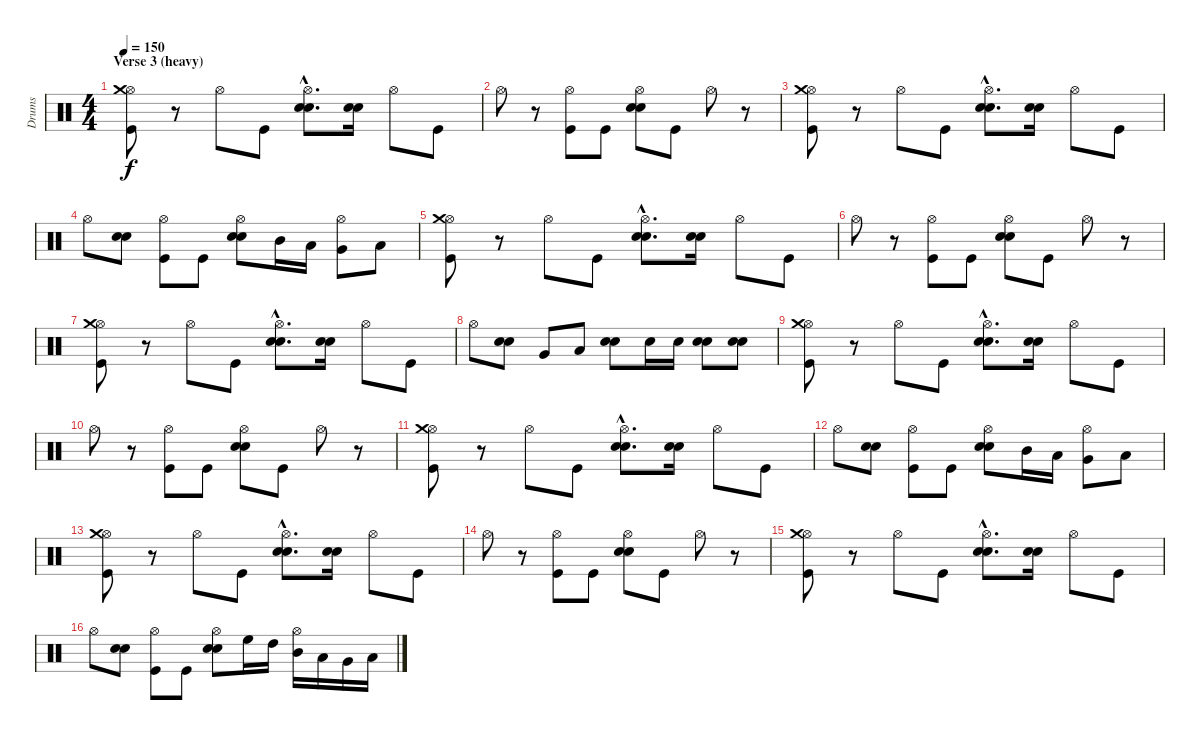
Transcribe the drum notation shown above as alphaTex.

\track ("Drums" "Drums") {instrument percussion}
\staff {score}
\articulation defaults
\ts (4 4)
\section ("" "Verse 3 (heavy)")
\tempo 150
\clef neutral
\ks c
("Kick (hit)" "Hi-Hat (open)" "Crash medium (hit)").8{dy f} r.8 "Hi-Hat (open)".8 "Kick (hit)".8 ("Electric Snare (hit)"{hac} "Electric Snare (hit)"{hac} "Hi-Hat (open)"{hac}).8{d} ("Electric Snare (hit)" "Electric Snare (hit)").16 "Hi-Hat (open)".8 "Kick (hit)".8 |
"Hi-Hat (open)".8 r.8 ("Kick (hit)" "Hi-Hat (open)").8 "Kick (hit)".8 ("Electric Snare (hit)" "Electric Snare (hit)" "Hi-Hat (open)").8 "Kick (hit)".8 "Hi-Hat (open)".8 r.8 |
("Kick (hit)" "Hi-Hat (open)" "Crash medium (hit)").8 r.8 "Hi-Hat (open)".8 "Kick (hit)".8 ("Electric Snare (hit)"{hac} "Electric Snare (hit)"{hac} "Hi-Hat (open)"{hac}).8{d} ("Electric Snare (hit)" "Electric Snare (hit)").16 "Hi-Hat (open)".8 "Kick (hit)".8 |
"Hi-Hat (open)".8 ("Electric Snare (hit)" "Electric Snare (hit)").8 ("Kick (hit)" "Hi-Hat (open)").8 "Kick (hit)".8 ("Electric Snare (hit)" "Electric Snare (hit)" "Hi-Hat (open)").8 "Mid Tom (hit)".16 "Low Tom (hit)".16 ("Very Low Tom (hit)" "Hi-Hat (open)").8 "Low Floor Tom (hit)".8 |
("Kick (hit)" "Hi-Hat (open)" "Crash medium (hit)").8 r.8 "Hi-Hat (open)".8 "Kick (hit)".8 ("Electric Snare (hit)"{hac} "Electric Snare (hit)"{hac} "Hi-Hat (open)"{hac}).8{d} ("Electric Snare (hit)" "Electric Snare (hit)").16 "Hi-Hat (open)".8 "Kick (hit)".8 |
"Hi-Hat (open)".8 r.8 ("Kick (hit)" "Hi-Hat (open)").8 "Kick (hit)".8 ("Electric Snare (hit)" "Electric Snare (hit)" "Hi-Hat (open)").8 "Kick (hit)".8 "Hi-Hat (open)".8 r.8 |
("Kick (hit)" "Hi-Hat (open)" "Crash medium (hit)").8 r.8 "Hi-Hat (open)".8 "Kick (hit)".8 ("Electric Snare (hit)"{hac} "Electric Snare (hit)"{hac} "Hi-Hat (open)"{hac}).8{d} ("Electric Snare (hit)" "Electric Snare (hit)").16 "Hi-Hat (open)".8 "Kick (hit)".8 |
"Hi-Hat (open)".8 ("Electric Snare (hit)" "Electric Snare (hit)").8 "Very Low Tom (hit)".8 "Low Floor Tom (hit)".8 ("Electric Snare (hit)" "Electric Snare (hit)").8 "Electric Snare (hit)".16 "Electric Snare (hit)".16 ("Electric Snare (hit)" "Electric Snare (hit)").8 ("Electric Snare (hit)" "Electric Snare (hit)").8 |
("Kick (hit)" "Hi-Hat (open)" "Crash medium (hit)").8 r.8 "Hi-Hat (open)".8 "Kick (hit)".8 ("Electric Snare (hit)"{hac} "Electric Snare (hit)"{hac} "Hi-Hat (open)"{hac}).8{d} ("Electric Snare (hit)" "Electric Snare (hit)").16 "Hi-Hat (open)".8 "Kick (hit)".8 |
"Hi-Hat (open)".8 r.8 ("Kick (hit)" "Hi-Hat (open)").8 "Kick (hit)".8 ("Electric Snare (hit)" "Electric Snare (hit)" "Hi-Hat (open)").8 "Kick (hit)".8 "Hi-Hat (open)".8 r.8 |
("Kick (hit)" "Hi-Hat (open)" "Crash medium (hit)").8 r.8 "Hi-Hat (open)".8 "Kick (hit)".8 ("Electric Snare (hit)"{hac} "Electric Snare (hit)"{hac} "Hi-Hat (open)"{hac}).8{d} ("Electric Snare (hit)" "Electric Snare (hit)").16 "Hi-Hat (open)".8 "Kick (hit)".8 |
"Hi-Hat (open)".8 ("Electric Snare (hit)" "Electric Snare (hit)").8 ("Kick (hit)" "Hi-Hat (open)").8 "Kick (hit)".8 ("Electric Snare (hit)" "Electric Snare (hit)" "Hi-Hat (open)").8 "Mid Tom (hit)".16 "Low Tom (hit)".16 ("Very Low Tom (hit)" "Hi-Hat (open)").8 "Low Floor Tom (hit)".8 |
("Kick (hit)" "Hi-Hat (open)" "Crash medium (hit)").8 r.8 "Hi-Hat (open)".8 "Kick (hit)".8 ("Electric Snare (hit)"{hac} "Electric Snare (hit)"{hac} "Hi-Hat (open)"{hac}).8{d} ("Electric Snare (hit)" "Electric Snare (hit)").16 "Hi-Hat (open)".8 "Kick (hit)".8 |
"Hi-Hat (open)".8 r.8 ("Kick (hit)" "Hi-Hat (open)").8 "Kick (hit)".8 ("Electric Snare (hit)" "Electric Snare (hit)" "Hi-Hat (open)").8 "Kick (hit)".8 "Hi-Hat (open)".8 r.8 |
("Kick (hit)" "Hi-Hat (open)" "Crash medium (hit)").8 r.8 "Hi-Hat (open)".8 "Kick (hit)".8 ("Electric Snare (hit)"{hac} "Electric Snare (hit)"{hac} "Hi-Hat (open)"{hac}).8{d} ("Electric Snare (hit)" "Electric Snare (hit)").16 "Hi-Hat (open)".8 "Kick (hit)".8 |
"Hi-Hat (open)".8 ("Electric Snare (hit)" "Electric Snare (hit)").8 ("Kick (hit)" "Hi-Hat (open)").8 "Kick (hit)".8 ("Electric Snare (hit)" "Electric Snare (hit)" "Hi-Hat (open)").8 "High Floor Tom (hit)".16 "High Tom (hit)".16 ("Mid Tom (hit)" "Hi-Hat (open)").16 "Low Tom (hit)".16 "Very Low Tom (hit)".16 "Low Floor Tom (hit)".16
